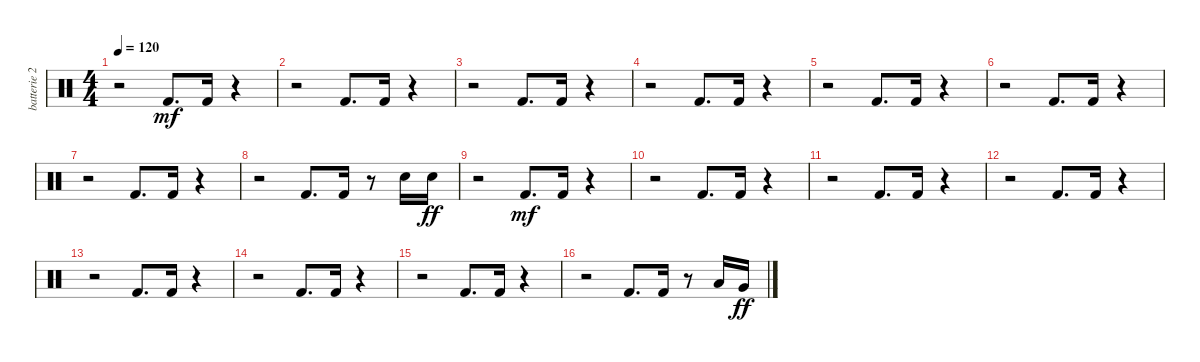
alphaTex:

\track ("batterie 2" "batterie 2") {instrument percussion}
\staff {score}
\articulation defaults
\ts (4 4)
\tempo 120
\clef neutral
\ks c
r.2{dy ff} "Kick (hit) 2".8{d dy mf} "Kick (hit) 2".16 r.4 |
r.2 "Kick (hit) 2".8{d} "Kick (hit) 2".16 r.4 |
r.2 "Kick (hit) 2".8{d} "Kick (hit) 2".16 r.4 |
r.2 "Kick (hit) 2".8{d} "Kick (hit) 2".16 r.4 |
r.2 "Kick (hit) 2".8{d} "Kick (hit) 2".16 r.4 |
r.2 "Kick (hit) 2".8{d} "Kick (hit) 2".16 r.4 |
r.2 "Kick (hit) 2".8{d} "Kick (hit) 2".16 r.4 |
r.2 "Kick (hit) 2".8{d} "Kick (hit) 2".16 r.8 "Electric Snare (hit)".16 "Electric Snare (hit)".16{dy ff} |
r.2 "Kick (hit) 2".8{d dy mf} "Kick (hit) 2".16 r.4 |
r.2 "Kick (hit) 2".8{d} "Kick (hit) 2".16 r.4 |
r.2 "Kick (hit) 2".8{d} "Kick (hit) 2".16 r.4 |
r.2 "Kick (hit) 2".8{d} "Kick (hit) 2".16 r.4 |
r.2 "Kick (hit) 2".8{d} "Kick (hit) 2".16 r.4 |
r.2 "Kick (hit) 2".8{d} "Kick (hit) 2".16 r.4 |
r.2 "Kick (hit) 2".8{d} "Kick (hit) 2".16 r.4 |
r.2 "Kick (hit) 2".8{d} "Kick (hit) 2".16 r.8 "Low Tom (hit)".16 "Very Low Tom (hit)".16{dy ff}
